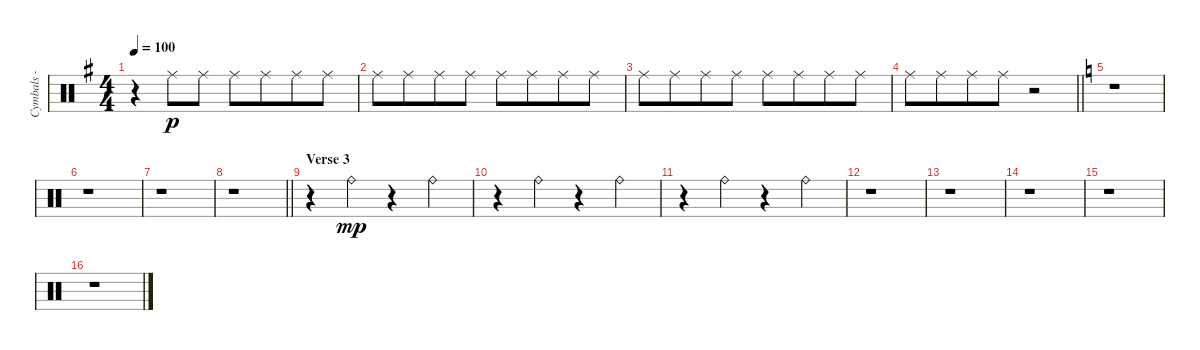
\track ("Cymbals - ride" "Cymbals - ") {instrument percussion}
\staff {score}
\articulation defaults
\ts (4 4)
\tempo 100
\clef neutral
\ks eminor
r.4{dy p} "Ride (middle)".8 "Ride (middle)".8 "Ride (middle)".8 "Ride (middle)".8{beam merge} "Ride (middle)".8 "Ride (middle)".8 |
"Ride (middle)".8 "Ride (middle)".8{beam merge} "Ride (middle)".8 "Ride (middle)".8 "Ride (middle)".8 "Ride (middle)".8{beam merge} "Ride (middle)".8 "Ride (middle)".8 |
"Ride (middle)".8 "Ride (middle)".8{beam merge} "Ride (middle)".8 "Ride (middle)".8 "Ride (middle)".8 "Ride (middle)".8{beam merge} "Ride (middle)".8 "Ride (middle)".8 |
\barLineRight lightlight "Ride (middle)".8 "Ride (middle)".8{beam merge} "Ride (middle)".8 "Ride (middle)".8
r.2 |
\ks c
r.1 |
r.1 |
r.1 |
\barLineRight lightlight
r.1 |
\section ("" "Verse 3")
\ks aminor
r.4 "Ride (bell)".4{dy mp} r.4 "Ride (bell)".4 |
r.4 "Ride (bell)".4 r.4 "Ride (bell)".4 |
r.4 "Ride (bell)".4 r.4 "Ride (bell)".4 |
r.1 |
r.1 |
r.1 |
r.1 |
r.1
